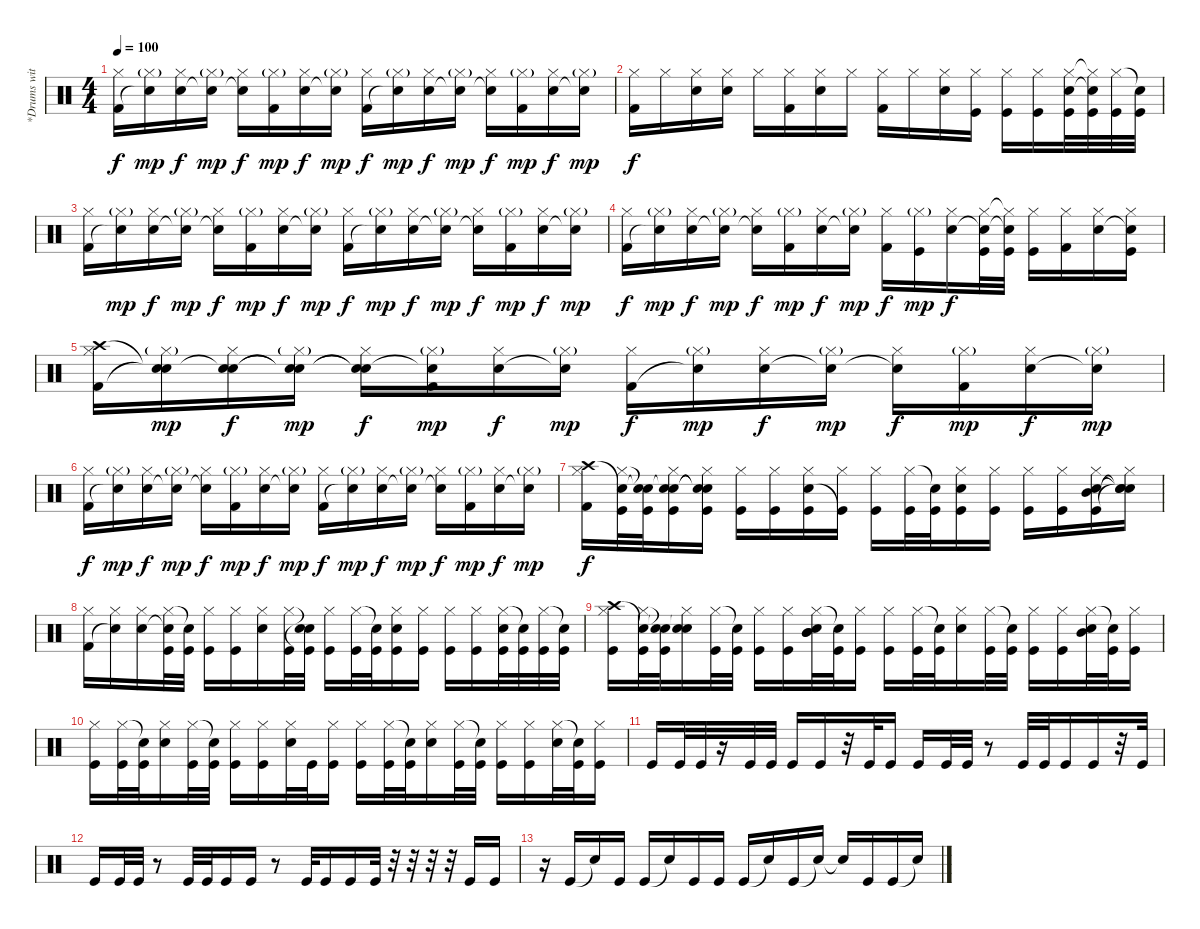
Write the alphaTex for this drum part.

\track ("*Drums with sampled drums (Rob and Joe)" "*Drums wit") {instrument percussion}
\staff {score}
\articulation defaults
\ts (4 4)
\tempo 100
\clef neutral
\ks c
("Hi-Hat (closed)" "Kick (hit) 2").16{dy f} ("Hi-Hat (closed)"{g} "Snare (hit)"{t}).16{dy mp} ("Hi-Hat (closed)" "Electric Snare (hit)").16{dy f} ("Hi-Hat (closed)"{g} "Snare (hit)"{t}).16{dy mp} ("Hi-Hat (closed)" "Snare (hit)"{t}).16{dy f} ("Hi-Hat (closed)"{g} "Kick (hit) 2").16{dy mp} ("Hi-Hat (closed)" "Electric Snare (hit)").16{dy f} ("Hi-Hat (closed)"{g} "Snare (hit)"{t}).16{dy mp} ("Hi-Hat (closed)" "Kick (hit) 2").16{dy f} ("Hi-Hat (closed)"{g} "Snare (hit)"{t}).16{dy mp} ("Hi-Hat (closed)" "Electric Snare (hit)").16{dy f} ("Hi-Hat (closed)"{g} "Snare (hit)"{t}).16{dy mp} ("Hi-Hat (closed)" "Snare (hit)"{t}).16{dy f} ("Hi-Hat (closed)"{g} "Kick (hit) 2").16{dy mp} ("Hi-Hat (closed)" "Electric Snare (hit)").16{dy f} ("Hi-Hat (closed)"{g} "Snare (hit)"{t}).16{dy mp} |
("Hi-Hat (closed)" "Kick (hit) 2").16{dy f} "Hi-Hat (closed)".16 ("Hi-Hat (closed)" "Electric Snare (hit)").16 ("Hi-Hat (closed)" "Electric Snare (hit)").16 "Hi-Hat (closed)".16 ("Hi-Hat (closed)" "Kick (hit) 2").16 ("Hi-Hat (closed)" "Electric Snare (hit)").16 "Hi-Hat (closed)".16 ("Hi-Hat (closed)" "Kick (hit) 2").16 "Hi-Hat (closed)".16 ("Hi-Hat (closed)" "Electric Snare (hit)").16 ("Hi-Hat (closed)" "Kick (hit)").16 ("Hi-Hat (closed)" "Kick (hit)").16 ("Hi-Hat (closed)" "Kick (hit)").16 ("Hi-Hat (closed)" "Electric Snare (hit)" "Kick (hit)").32 ("Hi-Hat (closed)"{t} "Snare (hit)"{t} "Kick (hit)").32 ("Hi-Hat (closed)" "Kick (hit)").32 ("Snare (hit)"{t} "Kick (hit)").32 |
("Hi-Hat (closed)" "Kick (hit) 2").16 ("Hi-Hat (closed)"{g} "Snare (hit)"{t}).16{dy mp} ("Hi-Hat (closed)" "Electric Snare (hit)").16{dy f} ("Hi-Hat (closed)"{g} "Snare (hit)"{t}).16{dy mp} ("Hi-Hat (closed)" "Snare (hit)"{t}).16{dy f} ("Hi-Hat (closed)"{g} "Kick (hit) 2").16{dy mp} ("Hi-Hat (closed)" "Electric Snare (hit)").16{dy f} ("Hi-Hat (closed)"{g} "Snare (hit)"{t}).16{dy mp} ("Hi-Hat (closed)" "Kick (hit) 2").16{dy f} ("Hi-Hat (closed)"{g} "Snare (hit)"{t}).16{dy mp} ("Hi-Hat (closed)" "Electric Snare (hit)").16{dy f} ("Hi-Hat (closed)"{g} "Snare (hit)"{t}).16{dy mp} ("Hi-Hat (closed)" "Snare (hit)"{t}).16{dy f} ("Hi-Hat (closed)"{g} "Kick (hit) 2").16{dy mp} ("Hi-Hat (closed)" "Electric Snare (hit)").16{dy f} ("Hi-Hat (closed)"{g} "Snare (hit)"{t}).16{dy mp} |
("Hi-Hat (closed)" "Kick (hit) 2").16{dy f} ("Hi-Hat (closed)"{g} "Snare (hit)"{t}).16{dy mp} ("Hi-Hat (closed)" "Electric Snare (hit)").16{dy f} ("Hi-Hat (closed)"{g} "Snare (hit)"{t}).16{dy mp} ("Hi-Hat (closed)" "Snare (hit)"{t}).16{dy f} ("Hi-Hat (closed)"{g} "Kick (hit) 2").16{dy mp} ("Hi-Hat (closed)" "Electric Snare (hit)").16{dy f} ("Hi-Hat (closed)"{g} "Snare (hit)"{t}).16{dy mp} ("Hi-Hat (closed)" "Kick (hit) 2").16{dy f} ("Hi-Hat (closed)"{g} "Kick (hit)").16{dy mp} ("Hi-Hat (closed)" "Electric Snare (hit)").16{dy f} ("Hi-Hat (closed)" "Snare (hit)"{t} "Kick (hit)").32 ("Hi-Hat (closed)"{t} "Snare (hit)"{t} "Kick (hit)").32 ("Hi-Hat (closed)" "Kick (hit)").16 ("Hi-Hat (closed)" "Kick (hit) 2").16 ("Hi-Hat (closed)" "Electric Snare (hit)").16 ("Hi-Hat (closed)" "Snare (hit)"{t} "Kick (hit)").16 |
("Crash high (hit)" "Hi-Hat (closed)" "Kick (hit) 2").16 ("Snare (hit)"{t} "Hi-Hat (closed)"{g} "Snare (hit)"{t}).16{dy mp} ("Snare (hit)"{t} "Hi-Hat (closed)" "Electric Snare (hit)").16{dy f} ("Snare (hit)"{t} "Hi-Hat (closed)"{g} "Snare (hit)"{t}).16{dy mp} ("Snare (hit)"{t} "Hi-Hat (closed)" "Snare (hit)"{t}).16{dy f} ("Snare (hit)"{t} "Hi-Hat (closed)"{g} "Kick (hit) 2").16{dy mp} ("Hi-Hat (closed)" "Electric Snare (hit)").16{dy f} ("Hi-Hat (closed)"{g} "Snare (hit)"{t}).16{dy mp} ("Hi-Hat (closed)" "Kick (hit) 2").16{dy f} ("Hi-Hat (closed)"{g} "Snare (hit)"{t}).16{dy mp} ("Hi-Hat (closed)" "Electric Snare (hit)").16{dy f} ("Hi-Hat (closed)"{g} "Snare (hit)"{t}).16{dy mp} ("Hi-Hat (closed)" "Snare (hit)"{t}).16{dy f} ("Hi-Hat (closed)"{g} "Kick (hit) 2").16{dy mp} ("Hi-Hat (closed)" "Electric Snare (hit)").16{dy f} ("Hi-Hat (closed)"{g} "Snare (hit)"{t}).16{dy mp} |
("Hi-Hat (closed)" "Kick (hit) 2").16{dy f} ("Hi-Hat (closed)"{g} "Snare (hit)"{t}).16{dy mp} ("Hi-Hat (closed)" "Electric Snare (hit)").16{dy f} ("Hi-Hat (closed)"{g} "Snare (hit)"{t}).16{dy mp} ("Hi-Hat (closed)" "Snare (hit)"{t}).16{dy f} ("Hi-Hat (closed)"{g} "Kick (hit) 2").16{dy mp} ("Hi-Hat (closed)" "Electric Snare (hit)").16{dy f} ("Hi-Hat (closed)"{g} "Snare (hit)"{t}).16{dy mp} ("Hi-Hat (closed)" "Kick (hit) 2").16{dy f} ("Hi-Hat (closed)"{g} "Snare (hit)"{t}).16{dy mp} ("Hi-Hat (closed)" "Electric Snare (hit)").16{dy f} ("Hi-Hat (closed)"{g} "Snare (hit)"{t}).16{dy mp} ("Hi-Hat (closed)" "Snare (hit)"{t}).16{dy f} ("Hi-Hat (closed)"{g} "Kick (hit) 2").16{dy mp} ("Hi-Hat (closed)" "Electric Snare (hit)").16{dy f} ("Hi-Hat (closed)"{g} "Snare (hit)"{t}).16{dy mp} |
("Crash high (hit)" "Hi-Hat (closed)" "Kick (hit) 2").16{dy f} ("Snare (hit)"{t} "Hi-Hat (closed)" "Kick (hit)").32 ("Snare (hit)"{t} "Snare (hit)"{t} "Kick (hit)").32 ("Snare (hit)"{t} "Hi-Hat (closed)" "Electric Snare (hit)" "Kick (hit)").16 ("Snare (hit)"{t} "Hi-Hat (closed)" "Snare (hit)"{t} "Kick (hit)").16 ("Hi-Hat (closed)" "Kick (hit)").16 ("Hi-Hat (closed)" "Kick (hit)").16 ("Hi-Hat (closed)" "Electric Snare (hit)" "Kick (hit)").16 ("Hi-Hat (closed)" "Kick (hit)"{t}).16 ("Hi-Hat (closed)" "Kick (hit)").16 ("Hi-Hat (closed)" "Kick (hit)").32 ("Snare (hit)"{t} "Kick (hit)").32 ("Hi-Hat (closed)" "Electric Snare (hit)" "Kick (hit)").16 ("Hi-Hat (closed)" "Kick (hit)").16 ("Hi-Hat (closed)" "Kick (hit)").16 ("Hi-Hat (closed)" "Kick (hit)").16 ("Hi-Hat (closed)" "Electric Snare (hit)" "Mid Tom (hit)" "Kick (hit)").16 ("Hi-Hat (closed)" "Snare (hit)"{t} "Snare (hit)"{t} "Snare (hit)"{t}).16 |
("Hi-Hat (closed)" "Kick (hit) 2").16 ("Hi-Hat (closed)" "Snare (hit)"{t}).16 ("Hi-Hat (closed)" "Electric Snare (hit)").16 ("Hi-Hat (closed)" "Snare (hit)"{t} "Kick (hit)").32 ("Snare (hit)"{t} "Kick (hit)").32 ("Hi-Hat (closed)" "Kick (hit)").16 ("Hi-Hat (closed)" "Kick (hit)").16 ("Hi-Hat (closed)" "Electric Snare (hit)").16 ("Hi-Hat (closed)" "Kick (hit)").32 ("Snare (hit)"{t} "Snare (hit)"{t} "Kick (hit)").32 ("Hi-Hat (closed)" "Kick (hit)").16 ("Hi-Hat (closed)" "Kick (hit)").32 ("Snare (hit)"{t} "Kick (hit)").32 ("Hi-Hat (closed)" "Electric Snare (hit)" "Kick (hit)").16 ("Hi-Hat (closed)" "Kick (hit)").16 ("Hi-Hat (closed)" "Kick (hit)").16 ("Hi-Hat (closed)" "Kick (hit)").16 ("Hi-Hat (closed)" "Electric Snare (hit)" "Kick (hit)").32 ("Snare (hit)"{t} "Kick (hit)").32 ("Hi-Hat (closed)" "Kick (hit)").32 ("Snare (hit)"{t} "Kick (hit)").32 |
("Crash high (hit)" "Hi-Hat (closed)" "Kick (hit)").16 ("Snare (hit)"{t} "Hi-Hat (closed)" "Kick (hit)").32 ("Snare (hit)"{t} "Snare (hit)"{t} "Kick (hit)").32 ("Snare (hit)"{t} "Hi-Hat (closed)" "Electric Snare (hit)").16 ("Hi-Hat (closed)" "Kick (hit)").32 ("Snare (hit)"{t} "Kick (hit)").32 ("Hi-Hat (closed)" "Kick (hit)").16 ("Hi-Hat (closed)" "Kick (hit)").16 ("Hi-Hat (closed)" "Mid Tom (hit)" "Electric Snare (hit)" "Mid Tom (hit)").32 ("Snare (hit)"{t} "Kick (hit)").32 ("Hi-Hat (closed)" "Kick (hit)").16 ("Hi-Hat (closed)" "Kick (hit)").16 ("Hi-Hat (closed)" "Kick (hit)").32 ("Snare (hit)"{t} "Kick (hit)").32 ("Hi-Hat (closed)" "Electric Snare (hit)").16 ("Hi-Hat (closed)" "Kick (hit)").32 ("Snare (hit)"{t} "Kick (hit)").32 ("Hi-Hat (closed)" "Kick (hit)").16 ("Hi-Hat (closed)" "Kick (hit)").16 ("Hi-Hat (closed)" "Electric Snare (hit)" "Mid Tom (hit)").32 ("Snare (hit)"{t} "Kick (hit)").32 ("Hi-Hat (closed)" "Kick (hit)").16 |
("Hi-Hat (closed)" "Kick (hit)").16 ("Hi-Hat (closed)" "Kick (hit)").32 ("Snare (hit)"{t} "Kick (hit)").32 ("Hi-Hat (closed)" "Electric Snare (hit)").16 ("Hi-Hat (closed)" "Kick (hit)").32 ("Snare (hit)"{t} "Kick (hit)").32 ("Hi-Hat (closed)" "Kick (hit)").16 ("Hi-Hat (closed)" "Kick (hit)").16 ("Hi-Hat (closed)" "Electric Snare (hit)").32 "Kick (hit)".32 ("Hi-Hat (closed)" "Kick (hit)").16 ("Hi-Hat (closed)" "Kick (hit)").16 ("Hi-Hat (closed)" "Kick (hit)").32 ("Snare (hit)"{t} "Kick (hit)").32 ("Hi-Hat (closed)" "Electric Snare (hit)").16 ("Hi-Hat (closed)" "Kick (hit)").32 ("Snare (hit)"{t} "Kick (hit)").32 ("Hi-Hat (closed)" "Kick (hit)").16 ("Hi-Hat (closed)" "Kick (hit)").16 ("Hi-Hat (closed)" "Electric Snare (hit)").32 ("Snare (hit)"{t} "Kick (hit)").32 ("Hi-Hat (closed)" "Kick (hit)").16 |
"Kick (hit)".16{volume 6} "Kick (hit)".32 "Kick (hit)".32 r.16 "Kick (hit)".32 "Kick (hit)".32 "Kick (hit)".16 "Kick (hit)".16 r.32 "Kick (hit)".32 "Kick (hit)".16 "Kick (hit)".16 "Kick (hit)".32 "Kick (hit)".32 r.8 "Kick (hit)".32 "Kick (hit)".32 "Kick (hit)".16 "Kick (hit)".16 r.32 "Kick (hit)".32 |
"Kick (hit)".16 "Kick (hit)".32 "Kick (hit)".32 r.8 "Kick (hit)".32 "Kick (hit)".32 "Kick (hit)".16 "Kick (hit)".16 r.8 "Kick (hit)".32 "Kick (hit)".16 "Kick (hit)".16 "Kick (hit)".32 r.32 r.32 r.32 r.32 "Kick (hit)".16 "Kick (hit)".16 |
r.16{volume 0} "Kick (hit)".16 "Snare (hit)"{t}.16 "Kick (hit)".16 "Kick (hit)".16 "Snare (hit)"{t}.16 "Kick (hit)".16 "Kick (hit)".16 "Kick (hit)".16 "Snare (hit)"{t}.16 "Kick (hit)".16 "Snare (hit)"{t}.16 "Snare (hit)"{t}.16 "Kick (hit)".16 "Kick (hit)".16 "Snare (hit)"{t}.16
